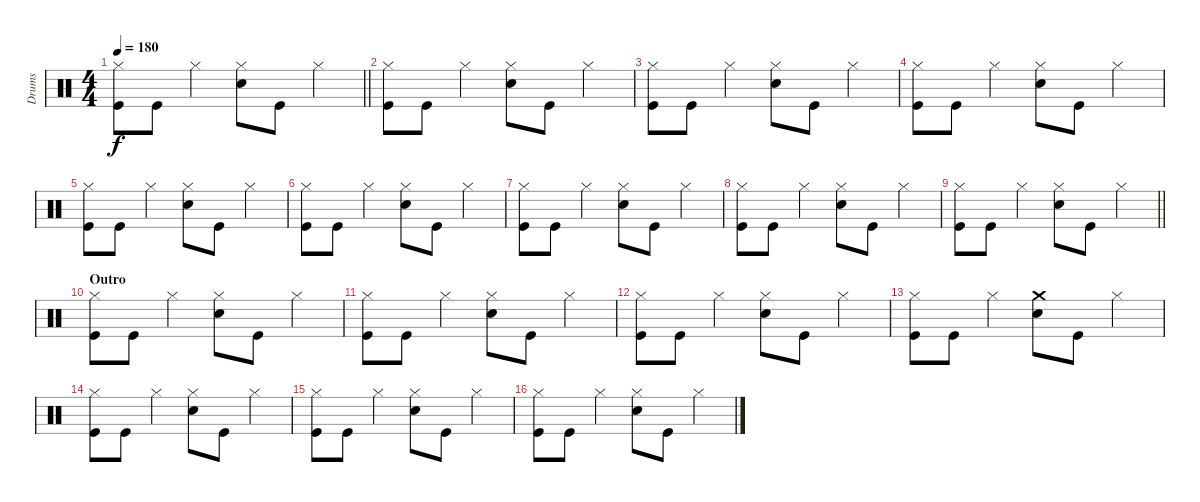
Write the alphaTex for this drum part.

\track ("Drums" "Drums") {instrument percussion}
\staff {score}
\articulation defaults
\ts (4 4)
\tempo 180
\clef neutral
\barLineRight lightlight
\ks c
("Hi-Hat (closed)" "Kick (hit)").8{dy f} "Kick (hit)".8 "Hi-Hat (closed)".4 ("Hi-Hat (closed)" "Snare (hit) 2").8 "Kick (hit)".8 "Hi-Hat (closed)".4 |
("Hi-Hat (closed)" "Kick (hit)").8 "Kick (hit)".8 "Hi-Hat (closed)".4 ("Hi-Hat (closed)" "Snare (hit) 2").8 "Kick (hit)".8 "Hi-Hat (closed)".4 |
("Hi-Hat (closed)" "Kick (hit)").8 "Kick (hit)".8 "Hi-Hat (closed)".4 ("Hi-Hat (closed)" "Snare (hit) 2").8 "Kick (hit)".8 "Hi-Hat (closed)".4 |
("Hi-Hat (closed)" "Kick (hit)").8 "Kick (hit)".8 "Hi-Hat (closed)".4 ("Hi-Hat (closed)" "Snare (hit) 2").8 "Kick (hit)".8 "Hi-Hat (closed)".4 |
("Hi-Hat (closed)" "Kick (hit)").8 "Kick (hit)".8 "Hi-Hat (closed)".4 ("Hi-Hat (closed)" "Snare (hit) 2").8 "Kick (hit)".8 "Hi-Hat (closed)".4 |
("Hi-Hat (closed)" "Kick (hit)").8 "Kick (hit)".8 "Hi-Hat (closed)".4 ("Hi-Hat (closed)" "Snare (hit) 2").8 "Kick (hit)".8 "Hi-Hat (closed)".4 |
("Hi-Hat (closed)" "Kick (hit)").8 "Kick (hit)".8 "Hi-Hat (closed)".4 ("Hi-Hat (closed)" "Snare (hit) 2").8 "Kick (hit)".8 "Hi-Hat (closed)".4 |
("Hi-Hat (closed)" "Kick (hit)").8 "Kick (hit)".8 "Hi-Hat (closed)".4 ("Hi-Hat (closed)" "Snare (hit) 2").8 "Kick (hit)".8 "Hi-Hat (closed)".4 |
\barLineRight lightlight
("Hi-Hat (closed)" "Kick (hit)").8 "Kick (hit)".8 "Hi-Hat (closed)".4 ("Hi-Hat (closed)" "Snare (hit) 2").8 "Kick (hit)".8 "Hi-Hat (closed)".4 |
\section ("" "Outro")
("Hi-Hat (closed)" "Kick (hit)").8 "Kick (hit)".8 "Hi-Hat (closed)".4 ("Hi-Hat (closed)" "Snare (hit) 2").8 "Kick (hit)".8 "Hi-Hat (closed)".4 |
("Hi-Hat (closed)" "Kick (hit)").8 "Kick (hit)".8 "Hi-Hat (closed)".4 ("Hi-Hat (closed)" "Snare (hit) 2").8 "Kick (hit)".8 "Hi-Hat (closed)".4 |
("Hi-Hat (closed)" "Kick (hit)").8 "Kick (hit)".8 "Hi-Hat (closed)".4 ("Hi-Hat (closed)" "Snare (hit) 2").8 "Kick (hit)".8 "Hi-Hat (closed)".4 |
("Hi-Hat (closed)" "Kick (hit)").8 "Kick (hit)".8 "Hi-Hat (closed)".4 ("Crash medium (hit)" "Snare (hit) 2").8 "Kick (hit)".8 "Hi-Hat (closed)".4 |
("Hi-Hat (closed)" "Kick (hit)").8 "Kick (hit)".8 "Hi-Hat (closed)".4 ("Hi-Hat (closed)" "Snare (hit) 2").8 "Kick (hit)".8 "Hi-Hat (closed)".4 |
("Hi-Hat (closed)" "Kick (hit)").8 "Kick (hit)".8 "Hi-Hat (closed)".4 ("Hi-Hat (closed)" "Snare (hit) 2").8 "Kick (hit)".8 "Hi-Hat (closed)".4 |
("Hi-Hat (closed)" "Kick (hit)").8 "Kick (hit)".8 "Hi-Hat (closed)".4 ("Hi-Hat (closed)" "Snare (hit) 2").8 "Kick (hit)".8 "Hi-Hat (closed)".4
